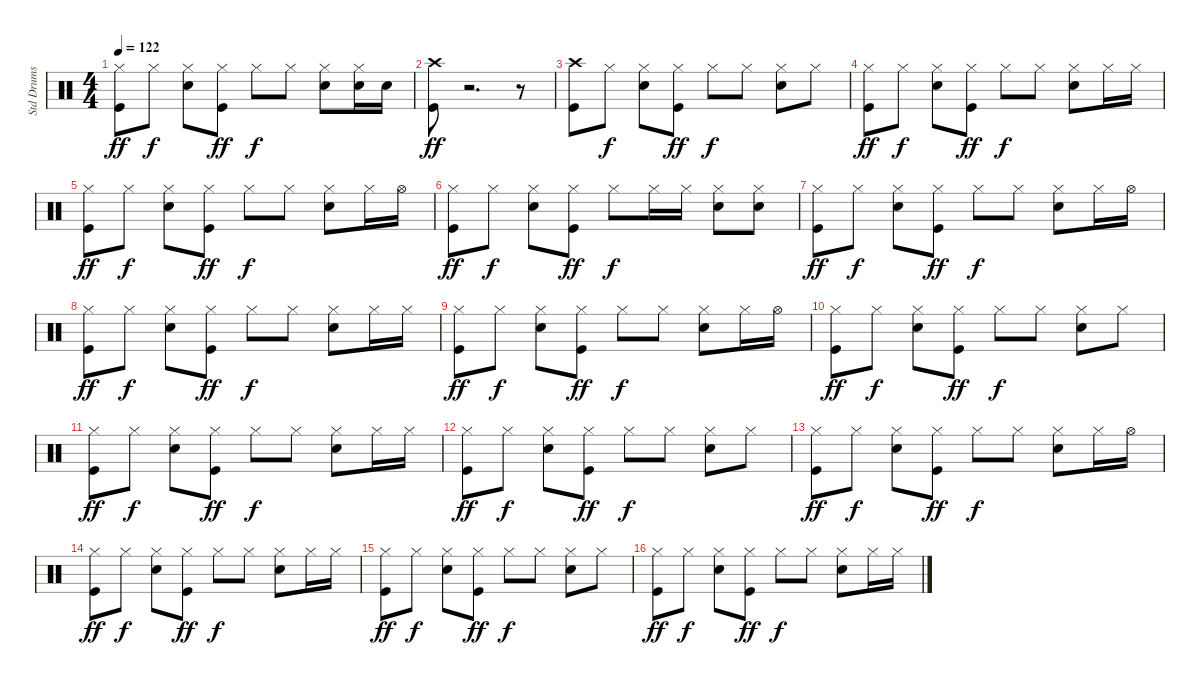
\track ("Std Drums" "Std Drums") {instrument percussion}
\staff {score}
\articulation defaults
\ts (4 4)
\tempo 122
\clef neutral
\ks c
("Hi-Hat (closed)" "Kick (hit)").8{dy ff} "Hi-Hat (closed)".8{dy f} ("Hi-Hat (closed)" "Snare (hit) 2").8 ("Hi-Hat (closed)" "Kick (hit)").8{dy ff} "Hi-Hat (closed)".8{dy f} "Hi-Hat (closed)".8 ("Hi-Hat (closed)" "Snare (hit) 2").8 ("Hi-Hat (closed)" "Snare (hit) 2").16 "Snare (hit) 2".16 |
("Crash high (hit)" "Kick (hit)").8{dy ff} r.2{d} r.8 |
("Kick (hit)" "Crash high (hit)").8 "Hi-Hat (closed)".8{dy f} ("Hi-Hat (closed)" "Snare (hit) 2").8 ("Hi-Hat (closed)" "Kick (hit)").8{dy ff} "Hi-Hat (closed)".8{dy f} "Hi-Hat (closed)".8 ("Hi-Hat (closed)" "Snare (hit) 2").8 "Hi-Hat (closed)".8 |
("Hi-Hat (closed)" "Kick (hit)").8{dy ff} "Hi-Hat (closed)".8{dy f} ("Hi-Hat (closed)" "Snare (hit) 2").8 ("Hi-Hat (closed)" "Kick (hit)").8{dy ff} "Hi-Hat (closed)".8{dy f} "Hi-Hat (closed)".8 ("Hi-Hat (closed)" "Snare (hit) 2").8 "Hi-Hat (closed)".16 "Hi-Hat (closed)".16 |
("Hi-Hat (closed)" "Kick (hit)").8{dy ff} "Hi-Hat (closed)".8{dy f} ("Hi-Hat (closed)" "Snare (hit) 2").8 ("Hi-Hat (closed)" "Kick (hit)").8{dy ff} "Hi-Hat (closed)".8{dy f} "Hi-Hat (closed)".8 ("Hi-Hat (closed)" "Snare (hit) 2").8 "Hi-Hat (closed)".16 "Hi-Hat (open)".16 |
("Hi-Hat (closed)" "Kick (hit)").8{dy ff} "Hi-Hat (closed)".8{dy f} ("Hi-Hat (closed)" "Snare (hit) 2").8 ("Hi-Hat (closed)" "Kick (hit)").8{dy ff} "Hi-Hat (closed)".8{dy f} "Hi-Hat (closed)".16 "Hi-Hat (closed)".16 ("Hi-Hat (closed)" "Snare (hit) 2").8 ("Hi-Hat (closed)" "Snare (hit) 2").8 |
("Hi-Hat (closed)" "Kick (hit)").8{dy ff} "Hi-Hat (closed)".8{dy f} ("Hi-Hat (closed)" "Snare (hit) 2").8 ("Hi-Hat (closed)" "Kick (hit)").8{dy ff} "Hi-Hat (closed)".8{dy f} "Hi-Hat (closed)".8 ("Hi-Hat (closed)" "Snare (hit) 2").8 "Hi-Hat (closed)".16 "Hi-Hat (open)".16 |
("Hi-Hat (closed)" "Kick (hit)").8{dy ff} "Hi-Hat (closed)".8{dy f} ("Hi-Hat (closed)" "Snare (hit) 2").8 ("Hi-Hat (closed)" "Kick (hit)").8{dy ff} "Hi-Hat (closed)".8{dy f} "Hi-Hat (closed)".8 ("Hi-Hat (closed)" "Snare (hit) 2").8 "Hi-Hat (closed)".16 "Hi-Hat (closed)".16 |
("Hi-Hat (closed)" "Kick (hit)").8{dy ff} "Hi-Hat (closed)".8{dy f} ("Hi-Hat (closed)" "Snare (hit) 2").8 ("Hi-Hat (closed)" "Kick (hit)").8{dy ff} "Hi-Hat (closed)".8{dy f} "Hi-Hat (closed)".8 ("Hi-Hat (closed)" "Snare (hit) 2").8 "Hi-Hat (closed)".16 "Hi-Hat (open)".16 |
("Hi-Hat (closed)" "Kick (hit)").8{dy ff} "Hi-Hat (closed)".8{dy f} ("Hi-Hat (closed)" "Snare (hit) 2").8 ("Hi-Hat (closed)" "Kick (hit)").8{dy ff} "Hi-Hat (closed)".8{dy f} "Hi-Hat (closed)".8 ("Hi-Hat (closed)" "Snare (hit) 2").8 "Hi-Hat (closed)".8 |
("Hi-Hat (closed)" "Kick (hit)").8{dy ff} "Hi-Hat (closed)".8{dy f volume 13} ("Hi-Hat (closed)" "Snare (hit) 2").8{volume 13} ("Hi-Hat (closed)" "Kick (hit)").8{dy ff volume 12} "Hi-Hat (closed)".8{dy f volume 12} "Hi-Hat (closed)".8{volume 12} ("Hi-Hat (closed)" "Snare (hit) 2").8{volume 12} "Hi-Hat (closed)".16{volume 12} "Hi-Hat (closed)".16 |
("Hi-Hat (closed)" "Kick (hit)").8{dy ff volume 12} "Hi-Hat (closed)".8{dy f volume 12} ("Hi-Hat (closed)" "Snare (hit) 2").8{volume 11} ("Hi-Hat (closed)" "Kick (hit)").8{dy ff volume 11} "Hi-Hat (closed)".8{dy f volume 11} "Hi-Hat (closed)".8{volume 11} ("Hi-Hat (closed)" "Snare (hit) 2").8{volume 10} "Hi-Hat (closed)".8{volume 10} |
("Hi-Hat (closed)" "Kick (hit)").8{dy ff volume 10} "Hi-Hat (closed)".8{dy f volume 10} ("Hi-Hat (closed)" "Snare (hit) 2").8{volume 10} ("Hi-Hat (closed)" "Kick (hit)").8{dy ff volume 10} "Hi-Hat (closed)".8{dy f volume 10} "Hi-Hat (closed)".8{volume 9} ("Hi-Hat (closed)" "Snare (hit) 2").8{volume 9} "Hi-Hat (closed)".16{volume 9} "Hi-Hat (open)".16 |
("Hi-Hat (closed)" "Kick (hit)").8{dy ff volume 9} "Hi-Hat (closed)".8{dy f volume 8} ("Hi-Hat (closed)" "Snare (hit) 2").8{volume 8} ("Hi-Hat (closed)" "Kick (hit)").8{dy ff volume 8} "Hi-Hat (closed)".8{dy f volume 8} "Hi-Hat (closed)".8{volume 8} ("Hi-Hat (closed)" "Snare (hit) 2").8{volume 8} "Hi-Hat (closed)".16{volume 8} "Hi-Hat (closed)".16{volume 7} |
("Hi-Hat (closed)" "Kick (hit)").8{dy ff volume 7} "Hi-Hat (closed)".8{dy f volume 7} ("Hi-Hat (closed)" "Snare (hit) 2").8{volume 7} ("Hi-Hat (closed)" "Kick (hit)").8{dy ff volume 7} "Hi-Hat (closed)".8{dy f volume 7} "Hi-Hat (closed)".8{volume 6} ("Hi-Hat (closed)" "Snare (hit) 2").8{volume 6} "Hi-Hat (closed)".8{volume 6} |
("Hi-Hat (closed)" "Kick (hit)").8{dy ff volume 6} "Hi-Hat (closed)".8{dy f volume 6} ("Hi-Hat (closed)" "Snare (hit) 2").8{volume 6} ("Hi-Hat (closed)" "Kick (hit)").8{dy ff volume 5} "Hi-Hat (closed)".8{dy f volume 5} "Hi-Hat (closed)".8{volume 5} ("Hi-Hat (closed)" "Snare (hit) 2").8{volume 5} "Hi-Hat (closed)".16{volume 5} "Hi-Hat (closed)".16{volume 4}
